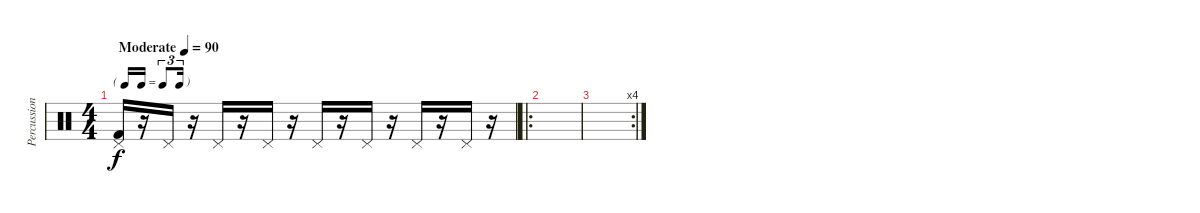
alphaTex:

\track ("Percussion" "Percussion") {instrument percussion}
\staff {score}
\articulation defaults
\ts (4 4)
\tf triplet16th
\tempo (90 "Moderate")
\clef neutral
\ks c
("Pedal Hi-Hat (hit)" "Kick (hit) 2").16{dy f} r.16 "Pedal Hi-Hat (hit)".16 r.16 "Pedal Hi-Hat (hit)".16 r.16 "Pedal Hi-Hat (hit)".16 r.16 "Pedal Hi-Hat (hit)".16 r.16 "Pedal Hi-Hat (hit)".16 r.16 "Pedal Hi-Hat (hit)".16 r.16 "Pedal Hi-Hat (hit)".16 r.16 |
\ro
|
\rc 4
